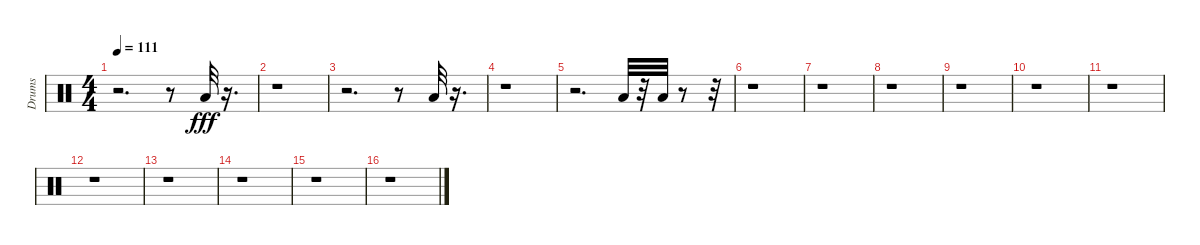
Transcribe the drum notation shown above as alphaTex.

\track ("Drums" "Drums") {instrument percussion}
\staff {score}
\articulation defaults
\ts (4 4)
\tempo 111
\clef neutral
\ks c
r.2{d dy fff} r.8 "Low Tom (hit)".32 r.16{d} |
r.1 |
r.2{d} r.8 "Low Tom (hit)".32 r.16{d} |
r.1 |
r.2{d} "Low Tom (hit)".32 r.32 "Low Tom (hit)".32 r.8 r.32 |
r.1 |
r.1 |
r.1 |
r.1 |
r.1 |
r.1 |
r.1 |
r.1 |
r.1 |
r.1 |
r.1
